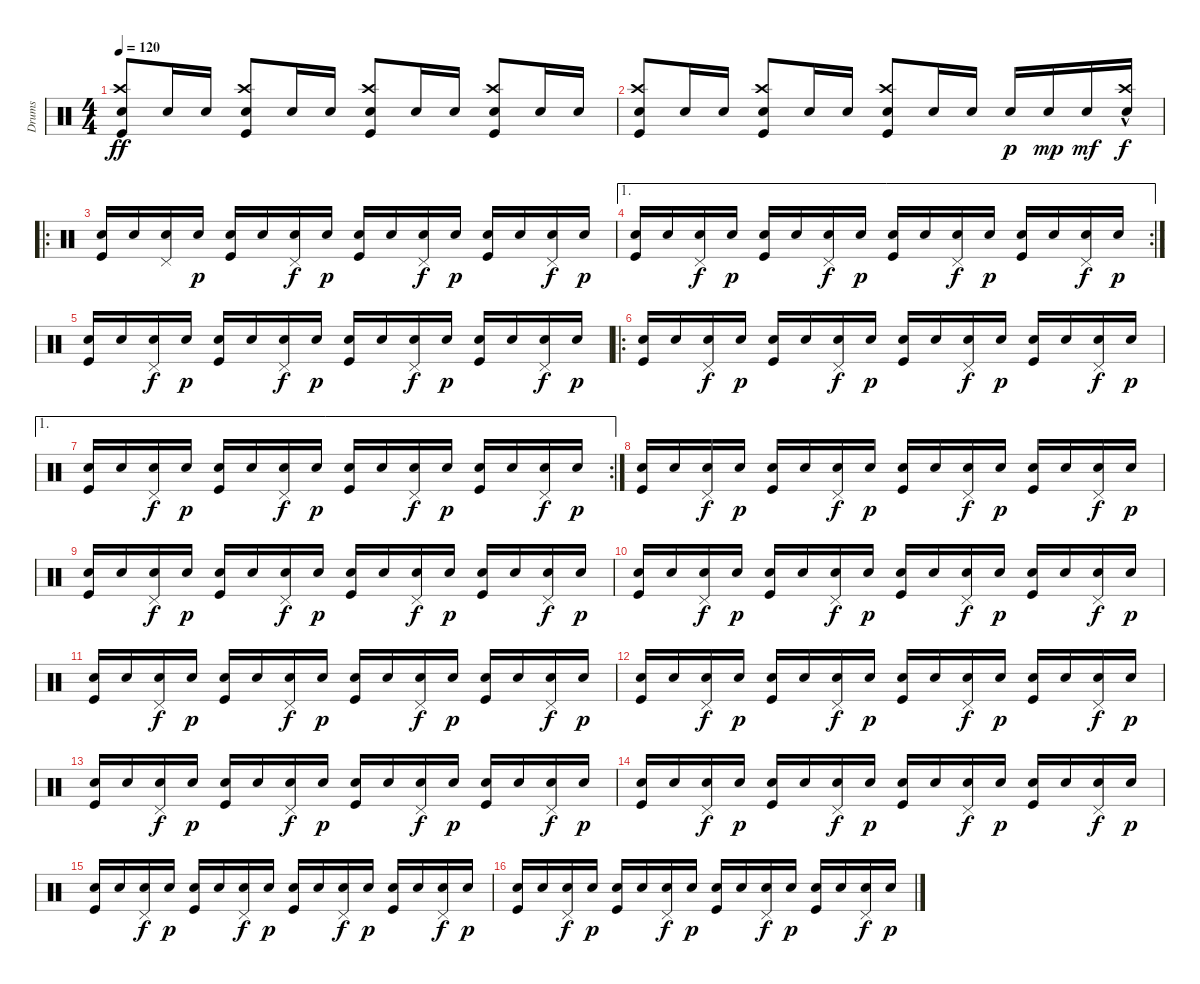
\defaultSystemsLayout 4
\track ("Drumkit" "Drums") {instrument percussion}
\staff {score}
\articulation defaults
\ts (4 4)
\tempo 120
\clef neutral
\scale
0.447368
\ks c
("Kick (hit)" "Snare (hit) 2" "Crash high (hit)").8{dy ff beam invert} "Snare (hit) 2".16 "Snare (hit) 2".16 ("Kick (hit)" "Snare (hit) 2" "Crash high (hit)").8{beam invert} "Snare (hit) 2".16 "Snare (hit) 2".16 ("Kick (hit)" "Snare (hit) 2" "Crash high (hit)").8{beam invert} "Snare (hit) 2".16 "Snare (hit) 2".16 ("Kick (hit)" "Snare (hit) 2" "Crash high (hit)").8{beam invert} "Snare (hit) 2".16 "Snare (hit) 2".16 |
\scale
0.25 ("Kick (hit)" "Snare (hit) 2" "Crash high (hit)").8{beam invert} "Snare (hit) 2".16 "Snare (hit) 2".16 ("Kick (hit)" "Snare (hit) 2" "Crash high (hit)").8{beam invert} "Snare (hit) 2".16 "Snare (hit) 2".16 ("Kick (hit)" "Snare (hit) 2" "Crash high (hit)").8{beam invert} "Snare (hit) 2".16 "Snare (hit) 2".16 "Snare (hit) 2".16{dy p beam invert} "Snare (hit) 2".16{dy mp} "Snare (hit) 2".16{dy mf} ("Snare (hit) 2"{hac} "Crash high (hit)").16{dy f} |
\ro
\scale
0.302632 ("Snare (hit) 2" "Kick (hit)").16 "Snare (hit) 2".16 ("Snare (hit) 2" "Pedal Hi-Hat (hit)").16 "Snare (hit) 2".16{dy p} ("Snare (hit) 2" "Kick (hit)").16 "Snare (hit) 2".16 ("Snare (hit) 2" "Pedal Hi-Hat (hit)").16{dy f} "Snare (hit) 2".16{dy p} ("Snare (hit) 2" "Kick (hit)").16 "Snare (hit) 2".16 ("Snare (hit) 2" "Pedal Hi-Hat (hit)").16{dy f} "Snare (hit) 2".16{dy p} ("Snare (hit) 2" "Kick (hit)").16 "Snare (hit) 2".16 ("Snare (hit) 2" "Pedal Hi-Hat (hit)").16{dy f} "Snare (hit) 2".16{dy p} |
\ae 1
\rc 2
\scale
0.333333 ("Snare (hit) 2" "Kick (hit)").16 "Snare (hit) 2".16 ("Snare (hit) 2" "Pedal Hi-Hat (hit)").16{dy f} "Snare (hit) 2".16{dy p} ("Snare (hit) 2" "Kick (hit)").16 "Snare (hit) 2".16 ("Snare (hit) 2" "Pedal Hi-Hat (hit)").16{dy f} "Snare (hit) 2".16{dy p} ("Snare (hit) 2" "Kick (hit)").16 "Snare (hit) 2".16 ("Snare (hit) 2" "Pedal Hi-Hat (hit)").16{dy f} "Snare (hit) 2".16{dy p} ("Snare (hit) 2" "Kick (hit)").16 "Snare (hit) 2".16 ("Snare (hit) 2" "Pedal Hi-Hat (hit)").16{dy f} "Snare (hit) 2".16{dy p} |
\scale
0.301587 ("Snare (hit) 2" "Kick (hit)").16 "Snare (hit) 2".16 ("Snare (hit) 2" "Pedal Hi-Hat (hit)").16{dy f} "Snare (hit) 2".16{dy p} ("Snare (hit) 2" "Kick (hit)").16 "Snare (hit) 2".16 ("Snare (hit) 2" "Pedal Hi-Hat (hit)").16{dy f} "Snare (hit) 2".16{dy p} ("Snare (hit) 2" "Kick (hit)").16 "Snare (hit) 2".16 ("Snare (hit) 2" "Pedal Hi-Hat (hit)").16{dy f} "Snare (hit) 2".16{dy p} ("Snare (hit) 2" "Kick (hit)").16 "Snare (hit) 2".16 ("Snare (hit) 2" "Pedal Hi-Hat (hit)").16{dy f} "Snare (hit) 2".16{dy p} |
\ro
\scale
0.365079 ("Snare (hit) 2" "Kick (hit)").16 "Snare (hit) 2".16 ("Snare (hit) 2" "Pedal Hi-Hat (hit)").16{dy f} "Snare (hit) 2".16{dy p} ("Snare (hit) 2" "Kick (hit)").16 "Snare (hit) 2".16 ("Snare (hit) 2" "Pedal Hi-Hat (hit)").16{dy f} "Snare (hit) 2".16{dy p} ("Snare (hit) 2" "Kick (hit)").16 "Snare (hit) 2".16 ("Snare (hit) 2" "Pedal Hi-Hat (hit)").16{dy f} "Snare (hit) 2".16{dy p} ("Snare (hit) 2" "Kick (hit)").16 "Snare (hit) 2".16 ("Snare (hit) 2" "Pedal Hi-Hat (hit)").16{dy f} "Snare (hit) 2".16{dy p} |
\ae 1
\rc 2
\scale
0.355932 ("Snare (hit) 2" "Kick (hit)").16 "Snare (hit) 2".16 ("Snare (hit) 2" "Pedal Hi-Hat (hit)").16{dy f} "Snare (hit) 2".16{dy p} ("Snare (hit) 2" "Kick (hit)").16 "Snare (hit) 2".16 ("Snare (hit) 2" "Pedal Hi-Hat (hit)").16{dy f} "Snare (hit) 2".16{dy p} ("Snare (hit) 2" "Kick (hit)").16 "Snare (hit) 2".16 ("Snare (hit) 2" "Pedal Hi-Hat (hit)").16{dy f} "Snare (hit) 2".16{dy p} ("Snare (hit) 2" "Kick (hit)").16 "Snare (hit) 2".16 ("Snare (hit) 2" "Pedal Hi-Hat (hit)").16{dy f} "Snare (hit) 2".16{dy p} |
\scale
0.322034 ("Snare (hit) 2" "Kick (hit)").16 "Snare (hit) 2".16 ("Snare (hit) 2" "Pedal Hi-Hat (hit)").16{dy f} "Snare (hit) 2".16{dy p} ("Snare (hit) 2" "Kick (hit)").16 "Snare (hit) 2".16 ("Snare (hit) 2" "Pedal Hi-Hat (hit)").16{dy f} "Snare (hit) 2".16{dy p} ("Snare (hit) 2" "Kick (hit)").16 "Snare (hit) 2".16 ("Snare (hit) 2" "Pedal Hi-Hat (hit)").16{dy f} "Snare (hit) 2".16{dy p} ("Snare (hit) 2" "Kick (hit)").16 "Snare (hit) 2".16 ("Snare (hit) 2" "Pedal Hi-Hat (hit)").16{dy f} "Snare (hit) 2".16{dy p} |
\scale
0.322034 ("Snare (hit) 2" "Kick (hit)").16 "Snare (hit) 2".16 ("Snare (hit) 2" "Pedal Hi-Hat (hit)").16{dy f} "Snare (hit) 2".16{dy p} ("Snare (hit) 2" "Kick (hit)").16 "Snare (hit) 2".16 ("Snare (hit) 2" "Pedal Hi-Hat (hit)").16{dy f} "Snare (hit) 2".16{dy p} ("Snare (hit) 2" "Kick (hit)").16 "Snare (hit) 2".16 ("Snare (hit) 2" "Pedal Hi-Hat (hit)").16{dy f} "Snare (hit) 2".16{dy p} ("Snare (hit) 2" "Kick (hit)").16 "Snare (hit) 2".16 ("Snare (hit) 2" "Pedal Hi-Hat (hit)").16{dy f} "Snare (hit) 2".16{dy p} |
\scale
0.333333 ("Snare (hit) 2" "Kick (hit)").16 "Snare (hit) 2".16 ("Snare (hit) 2" "Pedal Hi-Hat (hit)").16{dy f} "Snare (hit) 2".16{dy p} ("Snare (hit) 2" "Kick (hit)").16 "Snare (hit) 2".16 ("Snare (hit) 2" "Pedal Hi-Hat (hit)").16{dy f} "Snare (hit) 2".16{dy p} ("Snare (hit) 2" "Kick (hit)").16 "Snare (hit) 2".16 ("Snare (hit) 2" "Pedal Hi-Hat (hit)").16{dy f} "Snare (hit) 2".16{dy p} ("Snare (hit) 2" "Kick (hit)").16 "Snare (hit) 2".16 ("Snare (hit) 2" "Pedal Hi-Hat (hit)").16{dy f} "Snare (hit) 2".16{dy p} |
\scale
0.333333 ("Snare (hit) 2" "Kick (hit)").16 "Snare (hit) 2".16 ("Snare (hit) 2" "Pedal Hi-Hat (hit)").16{dy f} "Snare (hit) 2".16{dy p} ("Snare (hit) 2" "Kick (hit)").16 "Snare (hit) 2".16 ("Snare (hit) 2" "Pedal Hi-Hat (hit)").16{dy f} "Snare (hit) 2".16{dy p} ("Snare (hit) 2" "Kick (hit)").16 "Snare (hit) 2".16 ("Snare (hit) 2" "Pedal Hi-Hat (hit)").16{dy f} "Snare (hit) 2".16{dy p} ("Snare (hit) 2" "Kick (hit)").16 "Snare (hit) 2".16 ("Snare (hit) 2" "Pedal Hi-Hat (hit)").16{dy f} "Snare (hit) 2".16{dy p} |
\scale
0.333333 ("Snare (hit) 2" "Kick (hit)").16 "Snare (hit) 2".16 ("Snare (hit) 2" "Pedal Hi-Hat (hit)").16{dy f} "Snare (hit) 2".16{dy p} ("Snare (hit) 2" "Kick (hit)").16 "Snare (hit) 2".16 ("Snare (hit) 2" "Pedal Hi-Hat (hit)").16{dy f} "Snare (hit) 2".16{dy p} ("Snare (hit) 2" "Kick (hit)").16 "Snare (hit) 2".16 ("Snare (hit) 2" "Pedal Hi-Hat (hit)").16{dy f} "Snare (hit) 2".16{dy p} ("Snare (hit) 2" "Kick (hit)").16 "Snare (hit) 2".16 ("Snare (hit) 2" "Pedal Hi-Hat (hit)").16{dy f} "Snare (hit) 2".16{dy p} |
\scale
0.333333 ("Snare (hit) 2" "Kick (hit)").16 "Snare (hit) 2".16 ("Snare (hit) 2" "Pedal Hi-Hat (hit)").16{dy f} "Snare (hit) 2".16{dy p} ("Snare (hit) 2" "Kick (hit)").16 "Snare (hit) 2".16 ("Snare (hit) 2" "Pedal Hi-Hat (hit)").16{dy f} "Snare (hit) 2".16{dy p} ("Snare (hit) 2" "Kick (hit)").16 "Snare (hit) 2".16 ("Snare (hit) 2" "Pedal Hi-Hat (hit)").16{dy f} "Snare (hit) 2".16{dy p} ("Snare (hit) 2" "Kick (hit)").16 "Snare (hit) 2".16 ("Snare (hit) 2" "Pedal Hi-Hat (hit)").16{dy f} "Snare (hit) 2".16{dy p} |
\scale
0.333333 ("Snare (hit) 2" "Kick (hit)").16 "Snare (hit) 2".16 ("Snare (hit) 2" "Pedal Hi-Hat (hit)").16{dy f} "Snare (hit) 2".16{dy p} ("Snare (hit) 2" "Kick (hit)").16 "Snare (hit) 2".16 ("Snare (hit) 2" "Pedal Hi-Hat (hit)").16{dy f} "Snare (hit) 2".16{dy p} ("Snare (hit) 2" "Kick (hit)").16 "Snare (hit) 2".16 ("Snare (hit) 2" "Pedal Hi-Hat (hit)").16{dy f} "Snare (hit) 2".16{dy p} ("Snare (hit) 2" "Kick (hit)").16 "Snare (hit) 2".16 ("Snare (hit) 2" "Pedal Hi-Hat (hit)").16{dy f} "Snare (hit) 2".16{dy p} |
\scale
0.333333 ("Snare (hit) 2" "Kick (hit)").16 "Snare (hit) 2".16 ("Snare (hit) 2" "Pedal Hi-Hat (hit)").16{dy f} "Snare (hit) 2".16{dy p} ("Snare (hit) 2" "Kick (hit)").16 "Snare (hit) 2".16 ("Snare (hit) 2" "Pedal Hi-Hat (hit)").16{dy f} "Snare (hit) 2".16{dy p} ("Snare (hit) 2" "Kick (hit)").16 "Snare (hit) 2".16 ("Snare (hit) 2" "Pedal Hi-Hat (hit)").16{dy f} "Snare (hit) 2".16{dy p} ("Snare (hit) 2" "Kick (hit)").16 "Snare (hit) 2".16 ("Snare (hit) 2" "Pedal Hi-Hat (hit)").16{dy f} "Snare (hit) 2".16{dy p} |
\scale
0.333333 ("Snare (hit) 2" "Kick (hit)").16 "Snare (hit) 2".16 ("Snare (hit) 2" "Pedal Hi-Hat (hit)").16{dy f} "Snare (hit) 2".16{dy p} ("Snare (hit) 2" "Kick (hit)").16 "Snare (hit) 2".16 ("Snare (hit) 2" "Pedal Hi-Hat (hit)").16{dy f} "Snare (hit) 2".16{dy p} ("Snare (hit) 2" "Kick (hit)").16 "Snare (hit) 2".16 ("Snare (hit) 2" "Pedal Hi-Hat (hit)").16{dy f} "Snare (hit) 2".16{dy p} ("Snare (hit) 2" "Kick (hit)").16 "Snare (hit) 2".16 ("Snare (hit) 2" "Pedal Hi-Hat (hit)").16{dy f} "Snare (hit) 2".16{dy p}
